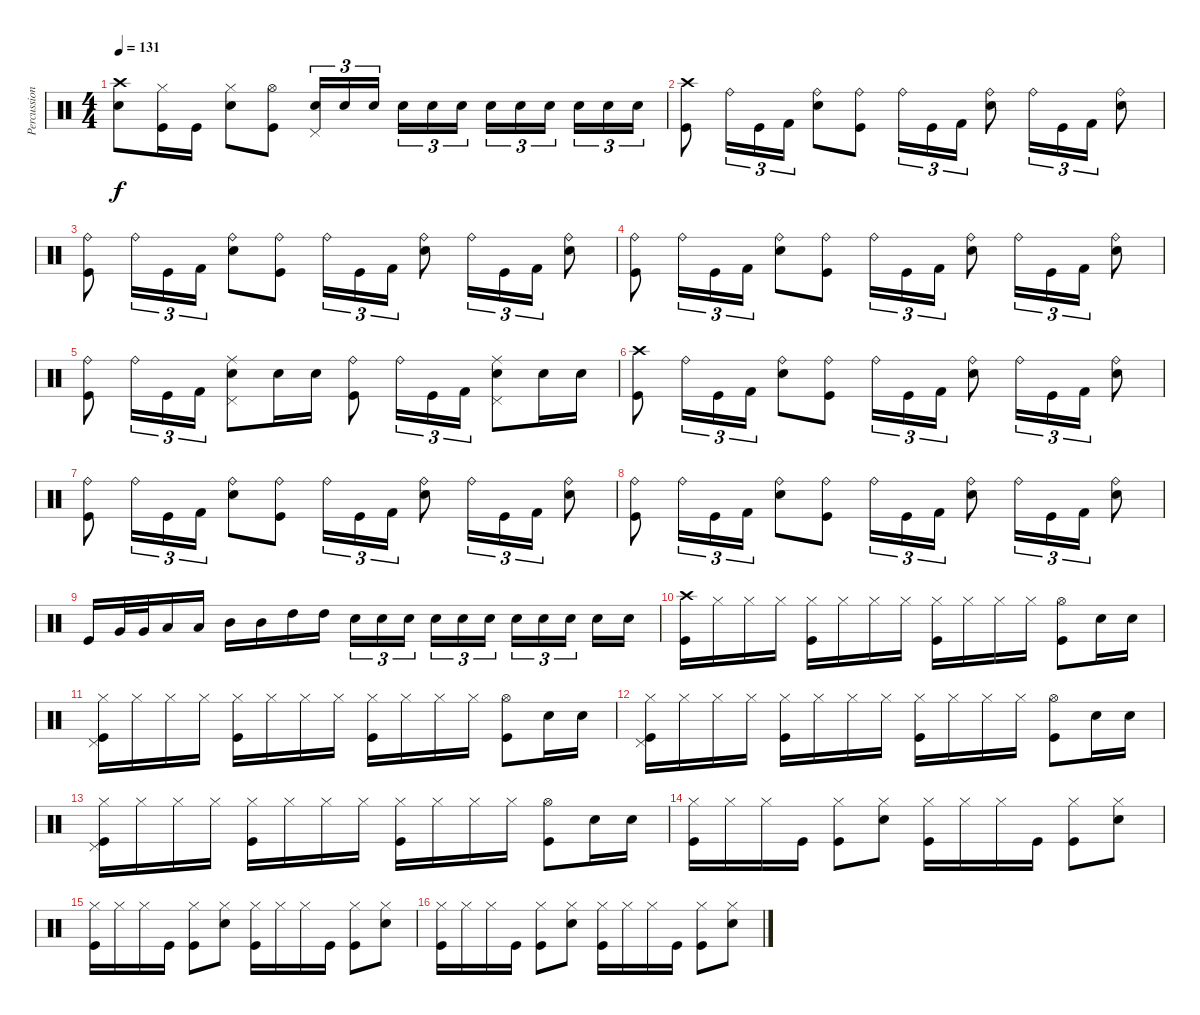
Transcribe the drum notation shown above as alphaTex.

\track ("Percussion" "Percussion") {instrument percussion}
\staff {score}
\articulation defaults
\ts (4 4)
\tempo 131
\clef neutral
\ks c
("Crash high (hit)" "Snare (hit) 2").8{dy f} ("Hi-Hat (closed)" "Kick (hit)").16 "Kick (hit)".16 ("Snare (hit) 2" "Hi-Hat (closed)").8 ("Hi-Hat (open)" "Kick (hit)").8 ("Snare (hit) 2" "Pedal Hi-Hat (hit)").16{tu (3 2)} "Snare (hit) 2".16{tu (3 2)} "Snare (hit) 2".16{tu (3 2)} "Snare (hit) 2".16{tu (3 2)} "Snare (hit) 2".16{tu (3 2)} "Snare (hit) 2".16{tu (3 2)} "Snare (hit) 2".16{tu (3 2)} "Snare (hit) 2".16{tu (3 2)} "Snare (hit) 2".16{tu (3 2)} "Snare (hit) 2".16{tu (3 2)} "Snare (hit) 2".16{tu (3 2)} "Snare (hit) 2".16{tu (3 2)} |
("Kick (hit)" "Crash high (hit)").8 "Ride (bell)".16{tu (3 2)} "Kick (hit)".16{tu (3 2)} "Kick (hit) 2".16{tu (3 2)} ("Snare (hit) 2" "Ride (bell)").8 ("Kick (hit)" "Ride (bell)").8 "Ride (bell)".16{tu (3 2)} "Kick (hit)".16{tu (3 2)} "Kick (hit) 2".16{tu (3 2)} ("Snare (hit) 2" "Ride (bell)").8 "Ride (bell)".16{tu (3 2)} "Kick (hit)".16{tu (3 2)} "Kick (hit) 2".16{tu (3 2)} ("Snare (hit) 2" "Ride (bell)").8 |
("Kick (hit)" "Ride (bell)").8 "Ride (bell)".16{tu (3 2)} "Kick (hit)".16{tu (3 2)} "Kick (hit) 2".16{tu (3 2)} ("Snare (hit) 2" "Ride (bell)").8 ("Kick (hit)" "Ride (bell)").8 "Ride (bell)".16{tu (3 2)} "Kick (hit)".16{tu (3 2)} "Kick (hit) 2".16{tu (3 2)} ("Snare (hit) 2" "Ride (bell)").8 "Ride (bell)".16{tu (3 2)} "Kick (hit)".16{tu (3 2)} "Kick (hit) 2".16{tu (3 2)} ("Snare (hit) 2" "Ride (bell)").8 |
("Kick (hit)" "Ride (bell)").8 "Ride (bell)".16{tu (3 2)} "Kick (hit)".16{tu (3 2)} "Kick (hit) 2".16{tu (3 2)} ("Snare (hit) 2" "Ride (bell)").8 ("Kick (hit)" "Ride (bell)").8 "Ride (bell)".16{tu (3 2)} "Kick (hit)".16{tu (3 2)} "Kick (hit) 2".16{tu (3 2)} ("Snare (hit) 2" "Ride (bell)").8 "Ride (bell)".16{tu (3 2)} "Kick (hit)".16{tu (3 2)} "Kick (hit) 2".16{tu (3 2)} ("Snare (hit) 2" "Ride (bell)").8 |
("Kick (hit)" "Ride (bell)").8 "Ride (bell)".16{tu (3 2)} "Kick (hit)".16{tu (3 2)} "Kick (hit) 2".16{tu (3 2)} ("Pedal Hi-Hat (hit)" "Ride (middle)" "Snare (hit) 2").8 "Snare (hit) 2".16 "Snare (hit) 2".16 ("Kick (hit)" "Ride (bell)").8 "Ride (bell)".16{tu (3 2)} "Kick (hit)".16{tu (3 2)} "Kick (hit) 2".16{tu (3 2)} ("Pedal Hi-Hat (hit)" "Ride (middle)" "Snare (hit) 2").8 "Snare (hit) 2".16 "Snare (hit) 2".16 |
("Kick (hit)" "Crash high (hit)").8 "Ride (bell)".16{tu (3 2)} "Kick (hit)".16{tu (3 2)} "Kick (hit) 2".16{tu (3 2)} ("Snare (hit) 2" "Ride (bell)").8 ("Kick (hit)" "Ride (bell)").8 "Ride (bell)".16{tu (3 2)} "Kick (hit)".16{tu (3 2)} "Kick (hit) 2".16{tu (3 2)} ("Snare (hit) 2" "Ride (bell)").8 "Ride (bell)".16{tu (3 2)} "Kick (hit)".16{tu (3 2)} "Kick (hit) 2".16{tu (3 2)} ("Snare (hit) 2" "Ride (bell)").8 |
("Kick (hit)" "Ride (bell)").8 "Ride (bell)".16{tu (3 2)} "Kick (hit)".16{tu (3 2)} "Kick (hit) 2".16{tu (3 2)} ("Snare (hit) 2" "Ride (bell)").8 ("Kick (hit)" "Ride (bell)").8 "Ride (bell)".16{tu (3 2)} "Kick (hit)".16{tu (3 2)} "Kick (hit) 2".16{tu (3 2)} ("Snare (hit) 2" "Ride (bell)").8 "Ride (bell)".16{tu (3 2)} "Kick (hit)".16{tu (3 2)} "Kick (hit) 2".16{tu (3 2)} ("Snare (hit) 2" "Ride (bell)").8 |
("Kick (hit)" "Ride (bell)").8 "Ride (bell)".16{tu (3 2)} "Kick (hit)".16{tu (3 2)} "Kick (hit) 2".16{tu (3 2)} ("Snare (hit) 2" "Ride (bell)").8 ("Kick (hit)" "Ride (bell)").8 "Ride (bell)".16{tu (3 2)} "Kick (hit)".16{tu (3 2)} "Kick (hit) 2".16{tu (3 2)} ("Snare (hit) 2" "Ride (bell)").8 "Ride (bell)".16{tu (3 2)} "Kick (hit)".16{tu (3 2)} "Kick (hit) 2".16{tu (3 2)} ("Snare (hit) 2" "Ride (bell)").8 |
"Kick (hit)".16 "Very Low Tom (hit)".32 "Very Low Tom (hit)".32 "Low Tom (hit)".16 "Low Tom (hit)".16 "Mid Tom (hit)".16 "Mid Tom (hit)".16 "High Tom (hit)".16 "High Tom (hit)".16 "Snare (hit) 2".16{tu (3 2)} "Snare (hit) 2".16{tu (3 2)} "Snare (hit) 2".16{tu (3 2)} "Snare (hit) 2".16{tu (3 2)} "Snare (hit) 2".16{tu (3 2)} "Snare (hit) 2".16{tu (3 2)} "Snare (hit) 2".16{tu (3 2)} "Snare (hit) 2".16{tu (3 2)} "Snare (hit) 2".16{tu (3 2)} "Snare (hit) 2".16 "Snare (hit) 2".16 |
("Kick (hit)" "Crash high (hit)").16 "Hi-Hat (closed)".16 "Hi-Hat (closed)".16 "Hi-Hat (closed)".16 ("Kick (hit)" "Hi-Hat (closed)").16 "Hi-Hat (closed)".16 "Hi-Hat (closed)".16 "Hi-Hat (closed)".16 ("Kick (hit)" "Hi-Hat (closed)").16 "Hi-Hat (closed)".16 "Hi-Hat (closed)".16 "Hi-Hat (closed)".16 ("Hi-Hat (open)" "Kick (hit)").8 "Snare (hit) 2".16 "Snare (hit) 2".16 |
("Kick (hit)" "Pedal Hi-Hat (hit)" "Hi-Hat (closed)").16 "Hi-Hat (closed)".16 "Hi-Hat (closed)".16 "Hi-Hat (closed)".16 ("Kick (hit)" "Hi-Hat (closed)").16 "Hi-Hat (closed)".16 "Hi-Hat (closed)".16 "Hi-Hat (closed)".16 ("Kick (hit)" "Hi-Hat (closed)").16 "Hi-Hat (closed)".16 "Hi-Hat (closed)".16 "Hi-Hat (closed)".16 ("Hi-Hat (open)" "Kick (hit)").8 "Snare (hit) 2".16 "Snare (hit) 2".16 |
("Kick (hit)" "Pedal Hi-Hat (hit)" "Hi-Hat (closed)").16 "Hi-Hat (closed)".16 "Hi-Hat (closed)".16 "Hi-Hat (closed)".16 ("Kick (hit)" "Hi-Hat (closed)").16 "Hi-Hat (closed)".16 "Hi-Hat (closed)".16 "Hi-Hat (closed)".16 ("Kick (hit)" "Hi-Hat (closed)").16 "Hi-Hat (closed)".16 "Hi-Hat (closed)".16 "Hi-Hat (closed)".16 ("Hi-Hat (open)" "Kick (hit)").8 "Snare (hit) 2".16 "Snare (hit) 2".16 |
("Kick (hit)" "Pedal Hi-Hat (hit)" "Hi-Hat (closed)").16 "Hi-Hat (closed)".16 "Hi-Hat (closed)".16 "Hi-Hat (closed)".16 ("Kick (hit)" "Hi-Hat (closed)").16 "Hi-Hat (closed)".16 "Hi-Hat (closed)".16 "Hi-Hat (closed)".16 ("Kick (hit)" "Hi-Hat (closed)").16 "Hi-Hat (closed)".16 "Hi-Hat (closed)".16 "Hi-Hat (closed)".16 ("Hi-Hat (open)" "Kick (hit)").8 "Snare (hit) 2".16 "Snare (hit) 2".16 |
("Kick (hit)" "Hi-Hat (closed)").16 "Hi-Hat (closed)".16 "Hi-Hat (closed)".16 "Kick (hit)".16 ("Kick (hit)" "Hi-Hat (closed)").8 ("Electric Snare (hit)" "Hi-Hat (closed)").8 ("Kick (hit)" "Hi-Hat (closed)").16 "Hi-Hat (closed)".16 "Hi-Hat (closed)".16 "Kick (hit)".16 ("Kick (hit)" "Hi-Hat (closed)").8 ("Electric Snare (hit)" "Hi-Hat (closed)").8 |
("Kick (hit)" "Hi-Hat (closed)").16 "Hi-Hat (closed)".16 "Hi-Hat (closed)".16 "Kick (hit)".16 ("Kick (hit)" "Hi-Hat (closed)").8 ("Electric Snare (hit)" "Hi-Hat (closed)").8 ("Kick (hit)" "Hi-Hat (closed)").16 "Hi-Hat (closed)".16 "Hi-Hat (closed)".16 "Kick (hit)".16 ("Kick (hit)" "Hi-Hat (closed)").8 ("Electric Snare (hit)" "Hi-Hat (closed)").8 |
("Kick (hit)" "Hi-Hat (closed)").16 "Hi-Hat (closed)".16 "Hi-Hat (closed)".16 "Kick (hit)".16 ("Kick (hit)" "Hi-Hat (closed)").8 ("Electric Snare (hit)" "Hi-Hat (closed)").8 ("Kick (hit)" "Hi-Hat (closed)").16 "Hi-Hat (closed)".16 "Hi-Hat (closed)".16 "Kick (hit)".16 ("Kick (hit)" "Hi-Hat (closed)").8 ("Electric Snare (hit)" "Hi-Hat (closed)").8
